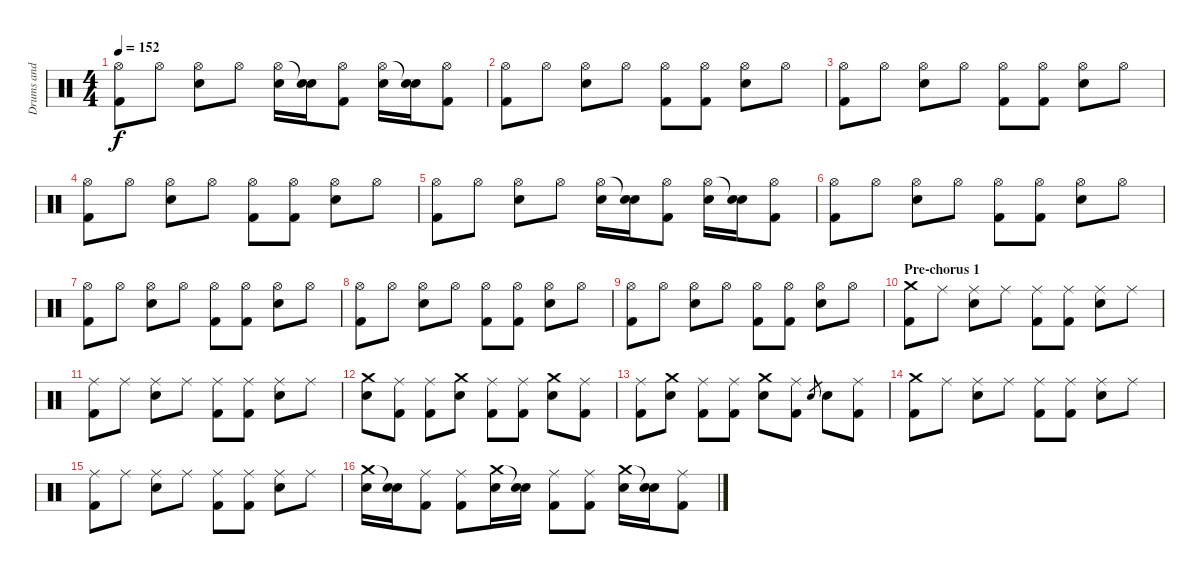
\track ("Drums and Percussion" "Drums and ") {instrument percussion}
\staff {score}
\articulation defaults
\ts (4 4)
\tempo 152
\clef neutral
\ks c
("Hi-Hat (open)" "Kick (hit) 2").8{dy f} "Hi-Hat (open)".8 ("Hi-Hat (open)" "Electric Snare (hit)").8 "Hi-Hat (open)".8 ("Hi-Hat (open)" "Electric Snare (hit)").16 ("Snare (hit)"{t} "Electric Snare (hit)").16 ("Hi-Hat (open)" "Kick (hit) 2").8 ("Hi-Hat (open)" "Electric Snare (hit)").16 ("Snare (hit)"{t} "Electric Snare (hit)").16 ("Hi-Hat (open)" "Kick (hit) 2").8 |
("Hi-Hat (open)" "Kick (hit) 2").8 "Hi-Hat (open)".8 ("Hi-Hat (open)" "Electric Snare (hit)").8 "Hi-Hat (open)".8 ("Hi-Hat (open)" "Kick (hit) 2").8 ("Hi-Hat (open)" "Kick (hit) 2").8 ("Hi-Hat (open)" "Electric Snare (hit)").8 "Hi-Hat (open)".8 |
("Hi-Hat (open)" "Kick (hit) 2").8 "Hi-Hat (open)".8 ("Hi-Hat (open)" "Electric Snare (hit)").8 "Hi-Hat (open)".8 ("Hi-Hat (open)" "Kick (hit) 2").8 ("Hi-Hat (open)" "Kick (hit) 2").8 ("Hi-Hat (open)" "Electric Snare (hit)").8 "Hi-Hat (open)".8 |
("Hi-Hat (open)" "Kick (hit) 2").8 "Hi-Hat (open)".8 ("Hi-Hat (open)" "Electric Snare (hit)").8 "Hi-Hat (open)".8 ("Hi-Hat (open)" "Kick (hit) 2").8 ("Hi-Hat (open)" "Kick (hit) 2").8 ("Hi-Hat (open)" "Electric Snare (hit)").8 "Hi-Hat (open)".8 |
("Hi-Hat (open)" "Kick (hit) 2").8 "Hi-Hat (open)".8 ("Hi-Hat (open)" "Electric Snare (hit)").8 "Hi-Hat (open)".8 ("Hi-Hat (open)" "Electric Snare (hit)").16 ("Snare (hit)"{t} "Electric Snare (hit)").16 ("Hi-Hat (open)" "Kick (hit) 2").8 ("Hi-Hat (open)" "Electric Snare (hit)").16 ("Snare (hit)"{t} "Electric Snare (hit)").16 ("Hi-Hat (open)" "Kick (hit) 2").8 |
("Hi-Hat (open)" "Kick (hit) 2").8 "Hi-Hat (open)".8 ("Hi-Hat (open)" "Electric Snare (hit)").8 "Hi-Hat (open)".8 ("Hi-Hat (open)" "Kick (hit) 2").8 ("Hi-Hat (open)" "Kick (hit) 2").8 ("Hi-Hat (open)" "Electric Snare (hit)").8 "Hi-Hat (open)".8 |
("Hi-Hat (open)" "Kick (hit) 2").8 "Hi-Hat (open)".8 ("Hi-Hat (open)" "Electric Snare (hit)").8 "Hi-Hat (open)".8 ("Hi-Hat (open)" "Kick (hit) 2").8 ("Hi-Hat (open)" "Kick (hit) 2").8 ("Hi-Hat (open)" "Electric Snare (hit)").8 "Hi-Hat (open)".8 |
("Hi-Hat (open)" "Kick (hit) 2").8 "Hi-Hat (open)".8 ("Hi-Hat (open)" "Electric Snare (hit)").8 "Hi-Hat (open)".8 ("Hi-Hat (open)" "Kick (hit) 2").8 ("Hi-Hat (open)" "Kick (hit) 2").8 ("Hi-Hat (open)" "Electric Snare (hit)").8 "Hi-Hat (open)".8 |
("Hi-Hat (open)" "Kick (hit) 2").8 "Hi-Hat (open)".8 ("Hi-Hat (open)" "Electric Snare (hit)").8 "Hi-Hat (open)".8 ("Hi-Hat (open)" "Kick (hit) 2").8 ("Hi-Hat (open)" "Kick (hit) 2").8 ("Hi-Hat (open)" "Electric Snare (hit)").8 "Hi-Hat (open)".8 |
\section ("" "Pre-chorus 1")
("Crash medium (hit)" "Kick (hit) 2").8 "Ride (middle)".8 ("Ride (middle)" "Electric Snare (hit)").8 "Ride (middle)".8 ("Ride (middle)" "Kick (hit) 2").8 ("Ride (middle)" "Kick (hit) 2").8 ("Ride (middle)" "Electric Snare (hit)").8 "Ride (middle)".8 |
("Ride (middle)" "Kick (hit) 2").8 "Ride (middle)".8 ("Ride (middle)" "Electric Snare (hit)").8 "Ride (middle)".8 ("Ride (middle)" "Kick (hit) 2").8 ("Ride (middle)" "Kick (hit) 2").8 ("Ride (middle)" "Electric Snare (hit)").8 "Ride (middle)".8 |
("Crash medium (hit)" "Electric Snare (hit)").8 ("Ride (middle)" "Kick (hit) 2").8 ("Ride (middle)" "Kick (hit) 2").8 ("Crash medium (hit)" "Electric Snare (hit)").8 ("Ride (middle)" "Kick (hit) 2").8 ("Ride (middle)" "Kick (hit) 2").8 ("Crash medium (hit)" "Electric Snare (hit)").8 ("Ride (middle)" "Kick (hit) 2").8 |
("Ride (middle)" "Kick (hit) 2").8 ("Crash medium (hit)" "Electric Snare (hit)").8 ("Ride (middle)" "Kick (hit) 2").8 ("Ride (middle)" "Kick (hit) 2").8 ("Crash medium (hit)" "Electric Snare (hit)").8 ("Ride (middle)" "Kick (hit) 2").8 "Electric Snare (hit)".8{gr} "Electric Snare (hit)".8 ("Ride (middle)" "Kick (hit) 2").8 |
("Crash medium (hit)" "Kick (hit) 2").8 "Ride (middle)".8 ("Ride (middle)" "Electric Snare (hit)").8 "Ride (middle)".8 ("Ride (middle)" "Kick (hit) 2").8 ("Ride (middle)" "Kick (hit) 2").8 ("Ride (middle)" "Electric Snare (hit)").8 "Ride (middle)".8 |
("Ride (middle)" "Kick (hit) 2").8 "Ride (middle)".8 ("Ride (middle)" "Electric Snare (hit)").8 "Ride (middle)".8 ("Ride (middle)" "Kick (hit) 2").8 ("Ride (middle)" "Kick (hit) 2").8 ("Ride (middle)" "Electric Snare (hit)").8 "Ride (middle)".8 |
("Crash medium (hit)" "Electric Snare (hit)").16 ("Snare (hit)"{t} "Electric Snare (hit)").16 ("Ride (middle)" "Kick (hit) 2").8 ("Ride (middle)" "Kick (hit) 2").8 ("Crash medium (hit)" "Electric Snare (hit)").16 ("Snare (hit)"{t} "Electric Snare (hit)").16 ("Ride (middle)" "Kick (hit) 2").8 ("Ride (middle)" "Kick (hit) 2").8 ("Crash medium (hit)" "Electric Snare (hit)").16 ("Snare (hit)"{t} "Electric Snare (hit)").16 ("Ride (middle)" "Kick (hit) 2").8
